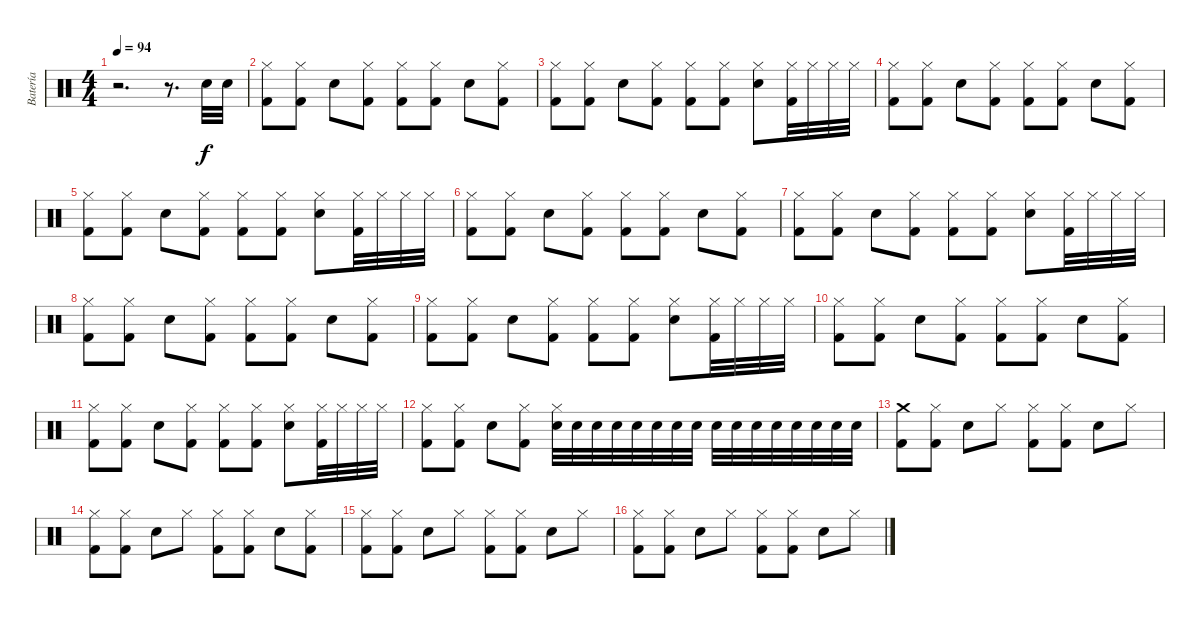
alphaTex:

\track ("Batería" "Batería") {instrument percussion}
\staff {score}
\articulation defaults
\ts (4 4)
\tempo 94
\clef neutral
\ks c
r.2{d dy f} r.8{d} "Snare (hit) 2".32 "Snare (hit) 2".32 |
("Hi-Hat (closed)" "Kick (hit) 2").8 ("Hi-Hat (closed)" "Kick (hit) 2").8 "Snare (hit) 2".8 ("Hi-Hat (closed)" "Kick (hit) 2").8 ("Hi-Hat (closed)" "Kick (hit) 2").8 ("Hi-Hat (closed)" "Kick (hit) 2").8 "Snare (hit) 2".8 ("Hi-Hat (closed)" "Kick (hit) 2").8 |
("Hi-Hat (closed)" "Kick (hit) 2").8 ("Hi-Hat (closed)" "Kick (hit) 2").8 "Snare (hit) 2".8 ("Hi-Hat (closed)" "Kick (hit) 2").8 ("Hi-Hat (closed)" "Kick (hit) 2").8 ("Hi-Hat (closed)" "Kick (hit) 2").8 ("Hi-Hat (closed)" "Snare (hit) 2").8 ("Hi-Hat (closed)" "Kick (hit) 2").32 "Hi-Hat (closed)".32 "Hi-Hat (closed)".32 "Hi-Hat (closed)".32 |
("Hi-Hat (closed)" "Kick (hit) 2").8 ("Hi-Hat (closed)" "Kick (hit) 2").8 "Snare (hit) 2".8 ("Hi-Hat (closed)" "Kick (hit) 2").8 ("Hi-Hat (closed)" "Kick (hit) 2").8 ("Hi-Hat (closed)" "Kick (hit) 2").8 "Snare (hit) 2".8 ("Hi-Hat (closed)" "Kick (hit) 2").8 |
("Hi-Hat (closed)" "Kick (hit) 2").8 ("Hi-Hat (closed)" "Kick (hit) 2").8 "Snare (hit) 2".8 ("Hi-Hat (closed)" "Kick (hit) 2").8 ("Hi-Hat (closed)" "Kick (hit) 2").8 ("Hi-Hat (closed)" "Kick (hit) 2").8 ("Hi-Hat (closed)" "Snare (hit) 2").8 ("Hi-Hat (closed)" "Kick (hit) 2").32 "Hi-Hat (closed)".32 "Hi-Hat (closed)".32 "Hi-Hat (closed)".32 |
("Hi-Hat (closed)" "Kick (hit) 2").8 ("Hi-Hat (closed)" "Kick (hit) 2").8 "Snare (hit) 2".8 ("Hi-Hat (closed)" "Kick (hit) 2").8 ("Hi-Hat (closed)" "Kick (hit) 2").8 ("Hi-Hat (closed)" "Kick (hit) 2").8 "Snare (hit) 2".8 ("Hi-Hat (closed)" "Kick (hit) 2").8 |
("Hi-Hat (closed)" "Kick (hit) 2").8 ("Hi-Hat (closed)" "Kick (hit) 2").8 "Snare (hit) 2".8 ("Hi-Hat (closed)" "Kick (hit) 2").8 ("Hi-Hat (closed)" "Kick (hit) 2").8 ("Hi-Hat (closed)" "Kick (hit) 2").8 ("Hi-Hat (closed)" "Snare (hit) 2").8 ("Hi-Hat (closed)" "Kick (hit) 2").32 "Hi-Hat (closed)".32 "Hi-Hat (closed)".32 "Hi-Hat (closed)".32 |
("Hi-Hat (closed)" "Kick (hit) 2").8 ("Hi-Hat (closed)" "Kick (hit) 2").8 "Snare (hit) 2".8 ("Hi-Hat (closed)" "Kick (hit) 2").8 ("Hi-Hat (closed)" "Kick (hit) 2").8 ("Hi-Hat (closed)" "Kick (hit) 2").8 "Snare (hit) 2".8 ("Hi-Hat (closed)" "Kick (hit) 2").8 |
("Hi-Hat (closed)" "Kick (hit) 2").8 ("Hi-Hat (closed)" "Kick (hit) 2").8 "Snare (hit) 2".8 ("Hi-Hat (closed)" "Kick (hit) 2").8 ("Hi-Hat (closed)" "Kick (hit) 2").8 ("Hi-Hat (closed)" "Kick (hit) 2").8 ("Hi-Hat (closed)" "Snare (hit) 2").8 ("Hi-Hat (closed)" "Kick (hit) 2").32 "Hi-Hat (closed)".32 "Hi-Hat (closed)".32 "Hi-Hat (closed)".32 |
("Hi-Hat (closed)" "Kick (hit) 2").8 ("Hi-Hat (closed)" "Kick (hit) 2").8 "Snare (hit) 2".8 ("Hi-Hat (closed)" "Kick (hit) 2").8 ("Hi-Hat (closed)" "Kick (hit) 2").8 ("Hi-Hat (closed)" "Kick (hit) 2").8 "Snare (hit) 2".8 ("Hi-Hat (closed)" "Kick (hit) 2").8 |
("Hi-Hat (closed)" "Kick (hit) 2").8 ("Hi-Hat (closed)" "Kick (hit) 2").8 "Snare (hit) 2".8 ("Hi-Hat (closed)" "Kick (hit) 2").8 ("Hi-Hat (closed)" "Kick (hit) 2").8 ("Hi-Hat (closed)" "Kick (hit) 2").8 ("Hi-Hat (closed)" "Snare (hit) 2").8 ("Hi-Hat (closed)" "Kick (hit) 2").32 "Hi-Hat (closed)".32 "Hi-Hat (closed)".32 "Hi-Hat (closed)".32 |
("Hi-Hat (closed)" "Kick (hit) 2").8 ("Hi-Hat (closed)" "Kick (hit) 2").8 "Snare (hit) 2".8 ("Hi-Hat (closed)" "Kick (hit) 2").8 ("Snare (hit) 2" "Hi-Hat (closed)").32{volume 14} "Snare (hit) 2".32 "Snare (hit) 2".32 "Snare (hit) 2".32 "Snare (hit) 2".32 "Snare (hit) 2".32 "Snare (hit) 2".32 "Snare (hit) 2".32 "Snare (hit) 2".32 "Snare (hit) 2".32{volume 14} "Snare (hit) 2".32 "Snare (hit) 2".32 "Snare (hit) 2".32 "Snare (hit) 2".32 "Snare (hit) 2".32 "Snare (hit) 2".32 |
("Crash medium (hit)" "Kick (hit) 2").8 ("Hi-Hat (closed)" "Kick (hit) 2").8{volume 16} "Snare (hit) 2".8 "Hi-Hat (closed)".8 ("Hi-Hat (closed)" "Kick (hit) 2").8 ("Hi-Hat (closed)" "Kick (hit) 2").8 "Snare (hit) 2".8 "Hi-Hat (closed)".8 |
("Hi-Hat (closed)" "Kick (hit) 2").8 ("Hi-Hat (closed)" "Kick (hit) 2").8 "Snare (hit) 2".8 "Hi-Hat (closed)".8 ("Hi-Hat (closed)" "Kick (hit) 2").8 ("Hi-Hat (closed)" "Kick (hit) 2").8 "Snare (hit) 2".8 ("Kick (hit) 2" "Hi-Hat (closed)").8 |
("Hi-Hat (closed)" "Kick (hit) 2").8 ("Hi-Hat (closed)" "Kick (hit) 2").8 "Snare (hit) 2".8 "Hi-Hat (closed)".8 ("Hi-Hat (closed)" "Kick (hit) 2").8 ("Hi-Hat (closed)" "Kick (hit) 2").8 "Snare (hit) 2".8 "Hi-Hat (closed)".8 |
("Hi-Hat (closed)" "Kick (hit) 2").8 ("Hi-Hat (closed)" "Kick (hit) 2").8 "Snare (hit) 2".8 "Hi-Hat (closed)".8 ("Hi-Hat (closed)" "Kick (hit) 2").8 ("Hi-Hat (closed)" "Kick (hit) 2").8 "Snare (hit) 2".8 "Hi-Hat (closed)".8
